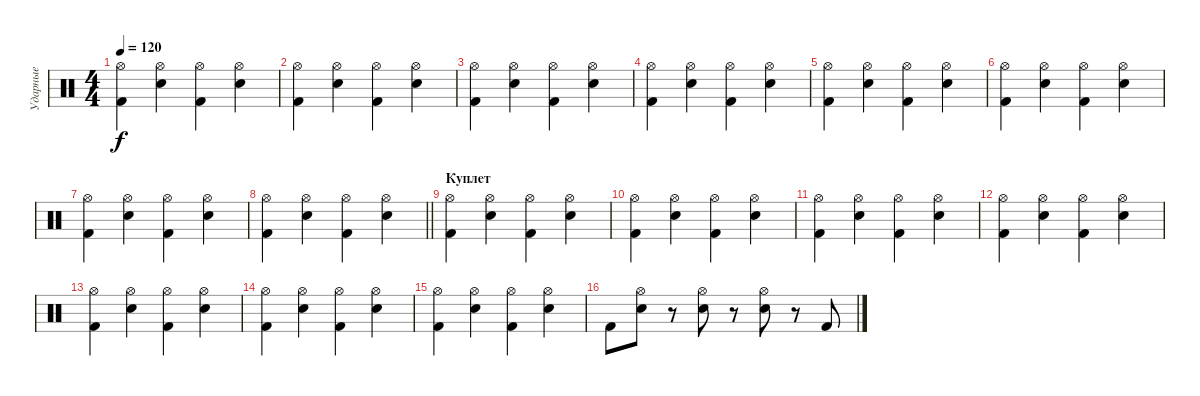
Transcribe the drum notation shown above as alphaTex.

\track ("Ударные" "Ударные") {instrument percussion}
\staff {score}
\articulation defaults
\ts (4 4)
\tempo 120
\clef neutral
\ks c
("Hi-Hat (open)" "Kick (hit) 2").4{dy f} ("Hi-Hat (open)" "Snare (hit) 2").4 ("Hi-Hat (open)" "Kick (hit) 2").4 ("Hi-Hat (open)" "Snare (hit) 2").4 |
("Hi-Hat (open)" "Kick (hit) 2").4 ("Hi-Hat (open)" "Snare (hit) 2").4 ("Hi-Hat (open)" "Kick (hit) 2").4 ("Hi-Hat (open)" "Snare (hit) 2").4 |
("Hi-Hat (open)" "Kick (hit) 2").4 ("Hi-Hat (open)" "Snare (hit) 2").4 ("Hi-Hat (open)" "Kick (hit) 2").4 ("Hi-Hat (open)" "Snare (hit) 2").4 |
("Hi-Hat (open)" "Kick (hit) 2").4 ("Hi-Hat (open)" "Snare (hit) 2").4 ("Hi-Hat (open)" "Kick (hit) 2").4 ("Hi-Hat (open)" "Snare (hit) 2").4 |
("Hi-Hat (open)" "Kick (hit) 2").4 ("Hi-Hat (open)" "Snare (hit) 2").4 ("Hi-Hat (open)" "Kick (hit) 2").4 ("Hi-Hat (open)" "Snare (hit) 2").4 |
("Hi-Hat (open)" "Kick (hit) 2").4 ("Hi-Hat (open)" "Snare (hit) 2").4 ("Hi-Hat (open)" "Kick (hit) 2").4 ("Hi-Hat (open)" "Snare (hit) 2").4 |
("Hi-Hat (open)" "Kick (hit) 2").4 ("Hi-Hat (open)" "Snare (hit) 2").4 ("Hi-Hat (open)" "Kick (hit) 2").4 ("Hi-Hat (open)" "Snare (hit) 2").4 |
\barLineRight lightlight
("Hi-Hat (open)" "Kick (hit) 2").4 ("Hi-Hat (open)" "Snare (hit) 2").4 ("Hi-Hat (open)" "Kick (hit) 2").4 ("Hi-Hat (open)" "Snare (hit) 2").4 |
\section ("" "Куплет ")
("Hi-Hat (open)" "Kick (hit) 2").4 ("Hi-Hat (open)" "Snare (hit) 2").4 ("Hi-Hat (open)" "Kick (hit) 2").4 ("Hi-Hat (open)" "Snare (hit) 2").4 |
("Hi-Hat (open)" "Kick (hit) 2").4 ("Hi-Hat (open)" "Snare (hit) 2").4 ("Hi-Hat (open)" "Kick (hit) 2").4 ("Hi-Hat (open)" "Snare (hit) 2").4 |
("Hi-Hat (open)" "Kick (hit) 2").4 ("Hi-Hat (open)" "Snare (hit) 2").4 ("Hi-Hat (open)" "Kick (hit) 2").4 ("Hi-Hat (open)" "Snare (hit) 2").4 |
("Hi-Hat (open)" "Kick (hit) 2").4 ("Hi-Hat (open)" "Snare (hit) 2").4 ("Hi-Hat (open)" "Kick (hit) 2").4 ("Hi-Hat (open)" "Snare (hit) 2").4 |
("Hi-Hat (open)" "Kick (hit) 2").4 ("Hi-Hat (open)" "Snare (hit) 2").4 ("Hi-Hat (open)" "Kick (hit) 2").4 ("Hi-Hat (open)" "Snare (hit) 2").4 |
("Hi-Hat (open)" "Kick (hit) 2").4 ("Hi-Hat (open)" "Snare (hit) 2").4 ("Hi-Hat (open)" "Kick (hit) 2").4 ("Hi-Hat (open)" "Snare (hit) 2").4 |
("Hi-Hat (open)" "Kick (hit) 2").4 ("Hi-Hat (open)" "Snare (hit) 2").4 ("Hi-Hat (open)" "Kick (hit) 2").4 ("Hi-Hat (open)" "Snare (hit) 2").4 |
"Kick (hit) 2".8 ("Hi-Hat (open)" "Electric Snare (hit)").8 r.8 ("Hi-Hat (open)" "Electric Snare (hit)").8 r.8 ("Hi-Hat (open)" "Electric Snare (hit)").8 r.8 "Kick (hit) 2".8
